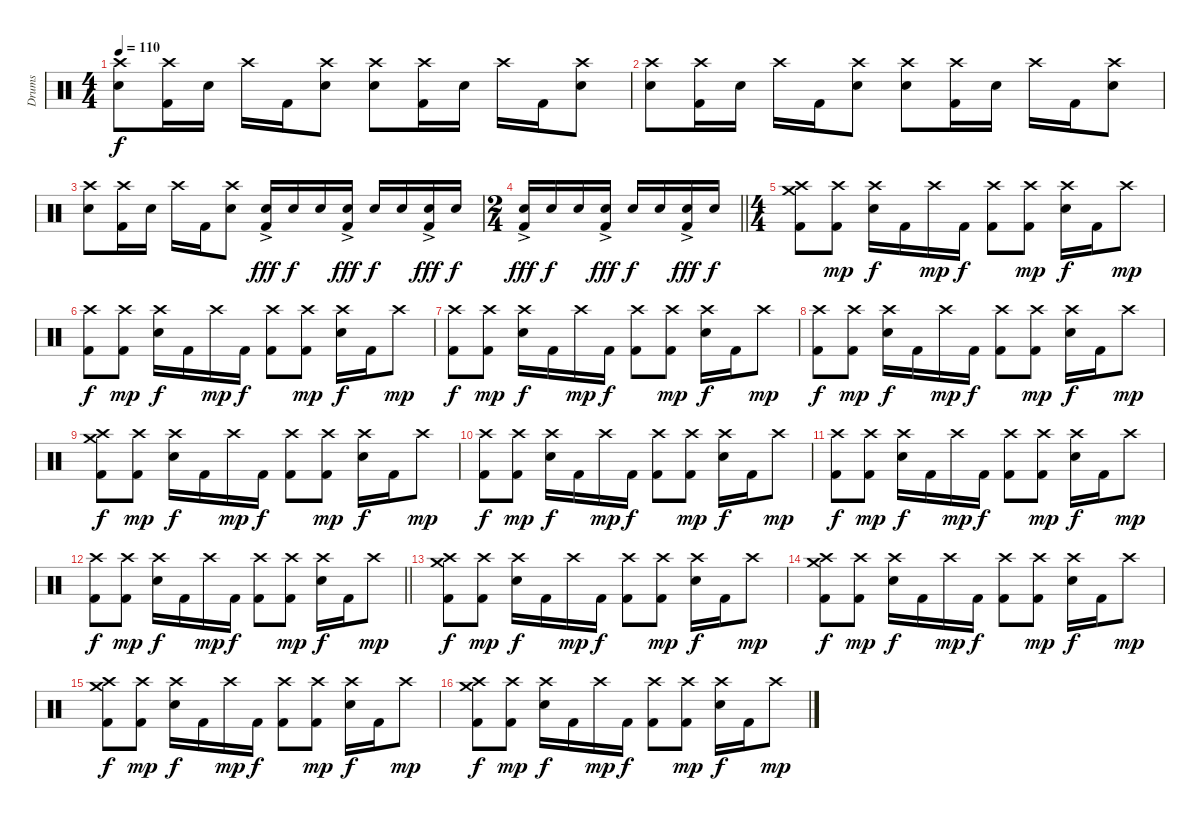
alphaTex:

\track ("Drums" "Drums") {instrument percussion}
\staff {score}
\articulation defaults
\ts (4 4)
\tempo 110
\clef neutral
\ks c
("Crash high (hit)" "Snare (hit) 2").8{dy f} ("Crash high (hit)" "Kick (hit) 2").16 "Snare (hit) 2".16 "Crash high (hit)".16 "Kick (hit) 2".16 ("Crash high (hit)" "Snare (hit) 2").8 ("Crash high (hit)" "Snare (hit) 2").8 ("Crash high (hit)" "Kick (hit) 2").16 "Snare (hit) 2".16 "Crash high (hit)".16 "Kick (hit) 2".16 ("Crash high (hit)" "Snare (hit) 2").8 |
("Crash high (hit)" "Snare (hit) 2").8 ("Crash high (hit)" "Kick (hit) 2").16 "Snare (hit) 2".16 "Crash high (hit)".16 "Kick (hit) 2".16 ("Crash high (hit)" "Snare (hit) 2").8 ("Crash high (hit)" "Snare (hit) 2").8 ("Crash high (hit)" "Kick (hit) 2").16 "Snare (hit) 2".16 "Crash high (hit)".16 "Kick (hit) 2".16 ("Crash high (hit)" "Snare (hit) 2").8 |
("Crash high (hit)" "Snare (hit) 2").8 ("Crash high (hit)" "Kick (hit) 2").16 "Snare (hit) 2".16 "Crash high (hit)".16 "Kick (hit) 2".16 ("Crash high (hit)" "Snare (hit) 2").8 ("Snare (hit) 2" "Kick (hit) 2"{ac}).16{dy fff} "Snare (hit) 2".16{dy f} "Snare (hit) 2".16 ("Snare (hit) 2" "Kick (hit) 2"{ac}).16{dy fff} "Snare (hit) 2".16{dy f} "Snare (hit) 2".16 ("Snare (hit) 2" "Kick (hit) 2"{ac}).16{dy fff} "Snare (hit) 2".16{dy f} |
\ts (2 4)
\barLineRight lightlight
("Snare (hit) 2" "Kick (hit) 2"{ac}).16{dy fff} "Snare (hit) 2".16{dy f} "Snare (hit) 2".16 ("Snare (hit) 2" "Kick (hit) 2"{ac}).16{dy fff} "Snare (hit) 2".16{dy f} "Snare (hit) 2".16 ("Snare (hit) 2" "Kick (hit) 2"{ac}).16{dy fff} "Snare (hit) 2".16{dy f} |
\ts (4 4)
("Crash high (hit)" "Crash medium (hit)" "Kick (hit) 2").8 ("Crash high (hit)" "Kick (hit) 2").8{dy mp} ("Crash high (hit)" "Snare (hit) 2").16{dy f} "Kick (hit) 2".16 "Crash high (hit)".16{dy mp} "Kick (hit) 2".16{dy f} ("Crash high (hit)" "Kick (hit) 2").8 ("Crash high (hit)" "Kick (hit) 2").8{dy mp} ("Crash high (hit)" "Snare (hit) 2").16{dy f} "Kick (hit) 2".16 "Crash high (hit)".8{dy mp} |
("Crash high (hit)" "Kick (hit) 2").8{dy f} ("Crash high (hit)" "Kick (hit) 2").8{dy mp} ("Crash high (hit)" "Snare (hit) 2").16{dy f} "Kick (hit) 2".16 "Crash high (hit)".16{dy mp} "Kick (hit) 2".16{dy f} ("Crash high (hit)" "Kick (hit) 2").8 ("Crash high (hit)" "Kick (hit) 2").8{dy mp} ("Crash high (hit)" "Snare (hit) 2").16{dy f} "Kick (hit) 2".16 "Crash high (hit)".8{dy mp} |
("Crash high (hit)" "Kick (hit) 2").8{dy f} ("Crash high (hit)" "Kick (hit) 2").8{dy mp} ("Crash high (hit)" "Snare (hit) 2").16{dy f} "Kick (hit) 2".16 "Crash high (hit)".16{dy mp} "Kick (hit) 2".16{dy f} ("Crash high (hit)" "Kick (hit) 2").8 ("Crash high (hit)" "Kick (hit) 2").8{dy mp} ("Crash high (hit)" "Snare (hit) 2").16{dy f} "Kick (hit) 2".16 "Crash high (hit)".8{dy mp} |
("Crash high (hit)" "Kick (hit) 2").8{dy f} ("Crash high (hit)" "Kick (hit) 2").8{dy mp} ("Crash high (hit)" "Snare (hit) 2").16{dy f} "Kick (hit) 2".16 "Crash high (hit)".16{dy mp} "Kick (hit) 2".16{dy f} ("Crash high (hit)" "Kick (hit) 2").8 ("Crash high (hit)" "Kick (hit) 2").8{dy mp} ("Crash high (hit)" "Snare (hit) 2").16{dy f} "Kick (hit) 2".16 "Crash high (hit)".8{dy mp} |
("Crash high (hit)" "Crash medium (hit)" "Kick (hit) 2").8{dy f} ("Crash high (hit)" "Kick (hit) 2").8{dy mp} ("Crash high (hit)" "Snare (hit) 2").16{dy f} "Kick (hit) 2".16 "Crash high (hit)".16{dy mp} "Kick (hit) 2".16{dy f} ("Crash high (hit)" "Kick (hit) 2").8 ("Crash high (hit)" "Kick (hit) 2").8{dy mp} ("Crash high (hit)" "Snare (hit) 2").16{dy f} "Kick (hit) 2".16 "Crash high (hit)".8{dy mp} |
("Crash high (hit)" "Kick (hit) 2").8{dy f} ("Crash high (hit)" "Kick (hit) 2").8{dy mp} ("Crash high (hit)" "Snare (hit) 2").16{dy f} "Kick (hit) 2".16 "Crash high (hit)".16{dy mp} "Kick (hit) 2".16{dy f} ("Crash high (hit)" "Kick (hit) 2").8 ("Crash high (hit)" "Kick (hit) 2").8{dy mp} ("Crash high (hit)" "Snare (hit) 2").16{dy f} "Kick (hit) 2".16 "Crash high (hit)".8{dy mp} |
("Crash high (hit)" "Kick (hit) 2").8{dy f} ("Crash high (hit)" "Kick (hit) 2").8{dy mp} ("Crash high (hit)" "Snare (hit) 2").16{dy f} "Kick (hit) 2".16 "Crash high (hit)".16{dy mp} "Kick (hit) 2".16{dy f} ("Crash high (hit)" "Kick (hit) 2").8 ("Crash high (hit)" "Kick (hit) 2").8{dy mp} ("Crash high (hit)" "Snare (hit) 2").16{dy f} "Kick (hit) 2".16 "Crash high (hit)".8{dy mp} |
\barLineRight lightlight
("Crash high (hit)" "Kick (hit) 2").8{dy f} ("Crash high (hit)" "Kick (hit) 2").8{dy mp} ("Crash high (hit)" "Snare (hit) 2").16{dy f} "Kick (hit) 2".16 "Crash high (hit)".16{dy mp} "Kick (hit) 2".16{dy f} ("Crash high (hit)" "Kick (hit) 2").8 ("Crash high (hit)" "Kick (hit) 2").8{dy mp} ("Crash high (hit)" "Snare (hit) 2").16{dy f} "Kick (hit) 2".16 "Crash high (hit)".8{dy mp} |
("Crash high (hit)" "Crash medium (hit)" "Kick (hit) 2").8{dy f} ("Crash high (hit)" "Kick (hit) 2").8{dy mp} ("Crash high (hit)" "Snare (hit) 2").16{dy f} "Kick (hit) 2".16 "Crash high (hit)".16{dy mp} "Kick (hit) 2".16{dy f} ("Crash high (hit)" "Kick (hit) 2").8 ("Crash high (hit)" "Kick (hit) 2").8{dy mp} ("Crash high (hit)" "Snare (hit) 2").16{dy f} "Kick (hit) 2".16 "Crash high (hit)".8{dy mp} |
("Crash high (hit)" "Crash medium (hit)" "Kick (hit) 2").8{dy f} ("Crash high (hit)" "Kick (hit) 2").8{dy mp} ("Crash high (hit)" "Snare (hit) 2").16{dy f} "Kick (hit) 2".16 "Crash high (hit)".16{dy mp} "Kick (hit) 2".16{dy f} ("Crash high (hit)" "Kick (hit) 2").8 ("Crash high (hit)" "Kick (hit) 2").8{dy mp} ("Crash high (hit)" "Snare (hit) 2").16{dy f} "Kick (hit) 2".16 "Crash high (hit)".8{dy mp} |
("Crash high (hit)" "Crash medium (hit)" "Kick (hit) 2").8{dy f} ("Crash high (hit)" "Kick (hit) 2").8{dy mp} ("Crash high (hit)" "Snare (hit) 2").16{dy f} "Kick (hit) 2".16 "Crash high (hit)".16{dy mp} "Kick (hit) 2".16{dy f} ("Crash high (hit)" "Kick (hit) 2").8 ("Crash high (hit)" "Kick (hit) 2").8{dy mp} ("Crash high (hit)" "Snare (hit) 2").16{dy f} "Kick (hit) 2".16 "Crash high (hit)".8{dy mp} |
("Crash high (hit)" "Crash medium (hit)" "Kick (hit) 2").8{dy f} ("Crash high (hit)" "Kick (hit) 2").8{dy mp} ("Crash high (hit)" "Snare (hit) 2").16{dy f} "Kick (hit) 2".16 "Crash high (hit)".16{dy mp} "Kick (hit) 2".16{dy f} ("Crash high (hit)" "Kick (hit) 2").8 ("Crash high (hit)" "Kick (hit) 2").8{dy mp} ("Crash high (hit)" "Snare (hit) 2").16{dy f} "Kick (hit) 2".16 "Crash high (hit)".8{dy mp}
